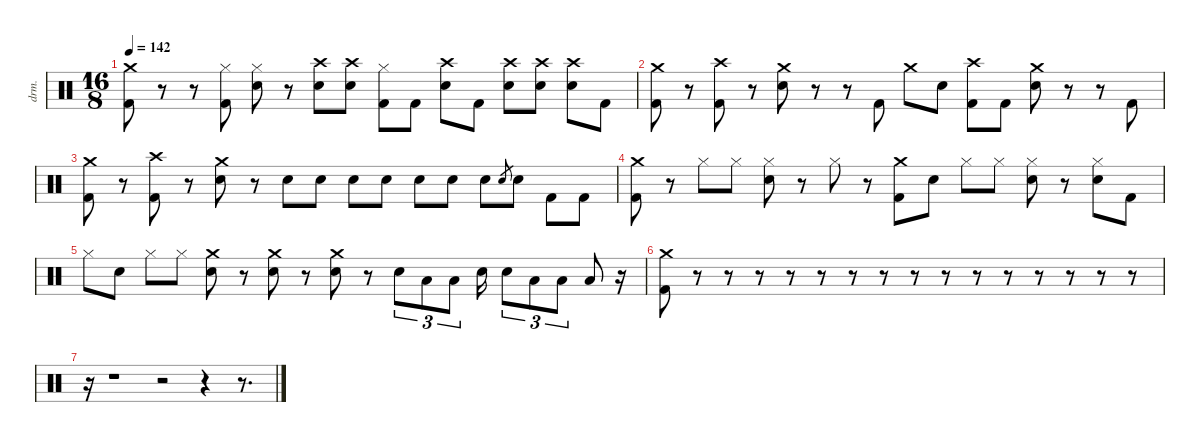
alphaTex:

\defaultSystemsLayout 4
\hideDynamics
\bracketExtendMode nobrackets
\otherSystemsTrackNameOrientation horizontal
\track ("Drums" "drm.") {instrument percussion}
\staff {score}
\articulation defaults
\ts (16 8)
\tempo 142
\clef neutral
\ks c
("Crash medium (hit)" "Kick (hit) 2").8{dy f beam Down} r.8{beam Down} r.8{beam Down} ("Hi-Hat (closed)" "Kick (hit) 2").8{beam Down} ("Hi-Hat (closed)" "Snare (hit) 2").8{beam Down} r.8{beam Down} ("Crash high (hit)" "Snare (hit) 2").8{dy mp beam Down} ("Crash high (hit)" "Snare (hit) 2").8{beam Down} ("Hi-Hat (closed)" "Kick (hit) 2").8{dy f beam Down} "Kick (hit) 2".8{beam Down} ("Crash high (hit)" "Snare (hit) 2").8{dy mp beam Down} "Kick (hit) 2".8{dy f beam Down} ("Crash high (hit)" "Snare (hit) 2").8{dy mp beam Down} ("Crash high (hit)" "Snare (hit) 2").8{beam Down} ("Crash high (hit)" "Snare (hit) 2").8{beam Down} "Kick (hit) 2".8{dy f beam Down} |
("Crash medium (hit)" "Kick (hit) 2").8{beam Down} r.8{beam Down} ("Crash high (hit)" "Kick (hit) 2").8{beam Down} r.8{beam Down} ("Crash medium (hit)" "Snare (hit) 2").8{beam Down} r.8{beam Down} r.8{beam Down} "Kick (hit) 2".8{beam Down} "Crash medium (hit)".8{beam Down} "Snare (hit) 2".8{beam Down} ("Crash high (hit)" "Kick (hit) 2").8{beam Down} "Kick (hit) 2".8{beam Down} ("Crash medium (hit)" "Snare (hit) 2").8{beam Down} r.8{beam Down} r.8{beam Down} "Kick (hit) 2".8{beam Down} |
("Crash medium (hit)" "Kick (hit) 2").8{beam Down} r.8{beam Down} ("Crash high (hit)" "Kick (hit) 2").8{beam Down} r.8{beam Down} ("Crash medium (hit)" "Snare (hit) 2").8{beam Down} r.8{beam Down} "Snare (hit) 2".8{beam Down} "Snare (hit) 2".8{beam Down} "Snare (hit) 2".8{beam Down} "Snare (hit) 2".8{beam Down} "Snare (hit) 2".8{beam Down} "Snare (hit) 2".8{beam Down} "Snare (hit) 2".8{beam Down} "Electric Snare (hit)".8{gr dy mf beam Up} "Snare (hit) 2".8{dy f beam Down} "Kick (hit) 2".8{beam Down} "Kick (hit) 2".8{beam Down} |
("Crash medium (hit)" "Kick (hit) 2").8{beam Down} r.8{beam Down} "Hi-Hat (closed)".8{beam Down} "Hi-Hat (closed)".8{beam Down} ("Hi-Hat (closed)" "Snare (hit) 2").8{beam Down} r.8{beam Down} "Hi-Hat (closed)".8{beam Down} r.8{beam Down} ("Crash medium (hit)" "Kick (hit) 2").8{beam Down} "Snare (hit) 2".8{beam Down} "Hi-Hat (closed)".8{beam Down} "Hi-Hat (closed)".8{beam Down} ("Hi-Hat (closed)" "Snare (hit) 2").8{beam Down} r.8{beam Down} ("Hi-Hat (closed)" "Snare (hit) 2").8{beam Down} "Kick (hit) 2".8{beam Down} |
"Hi-Hat (closed)".8{beam Down} "Snare (hit) 2".8{beam Down} "Hi-Hat (closed)".8{beam Down} "Hi-Hat (closed)".8{beam Down} ("Crash medium (hit)" "Snare (hit) 2").8{beam Down} r.8{beam Down} ("Crash medium (hit)" "Snare (hit) 2").8{beam Down} r.8{beam Down} ("Crash medium (hit)" "Snare (hit) 2").8{beam Down} r.8{beam Down} "Snare (hit) 2".8{tu (3 2) beam Down} "Low Tom (hit)".8{tu (3 2) beam Down} "Low Tom (hit)".8{tu (3 2) beam Down} "Snare (hit) 2".16{beam Down} "Snare (hit) 2".8{tu (3 2) beam Down} "Low Tom (hit)".8{tu (3 2) beam Down} "Low Tom (hit)".8{tu (3 2) beam Down} "Low Tom (hit)".8{beam Up} r.16{beam Up} |
("Crash medium (hit)" "Kick (hit) 2").8{beam Down} r.8{beam Down} r.8{beam Down} r.8{beam Down} r.8{beam Down} r.8{beam Down} r.8{beam Down} r.8{beam Down} r.8{beam Down} r.8{beam Down} r.8{beam Down} r.8{beam Down} r.8{beam Down} r.8{beam Down} r.8{beam Down} r.8{beam Down} |
r.16{beam Down} r.1{beam Down} r.2{beam Down} r.4{beam Down} r.8{d beam Down}
